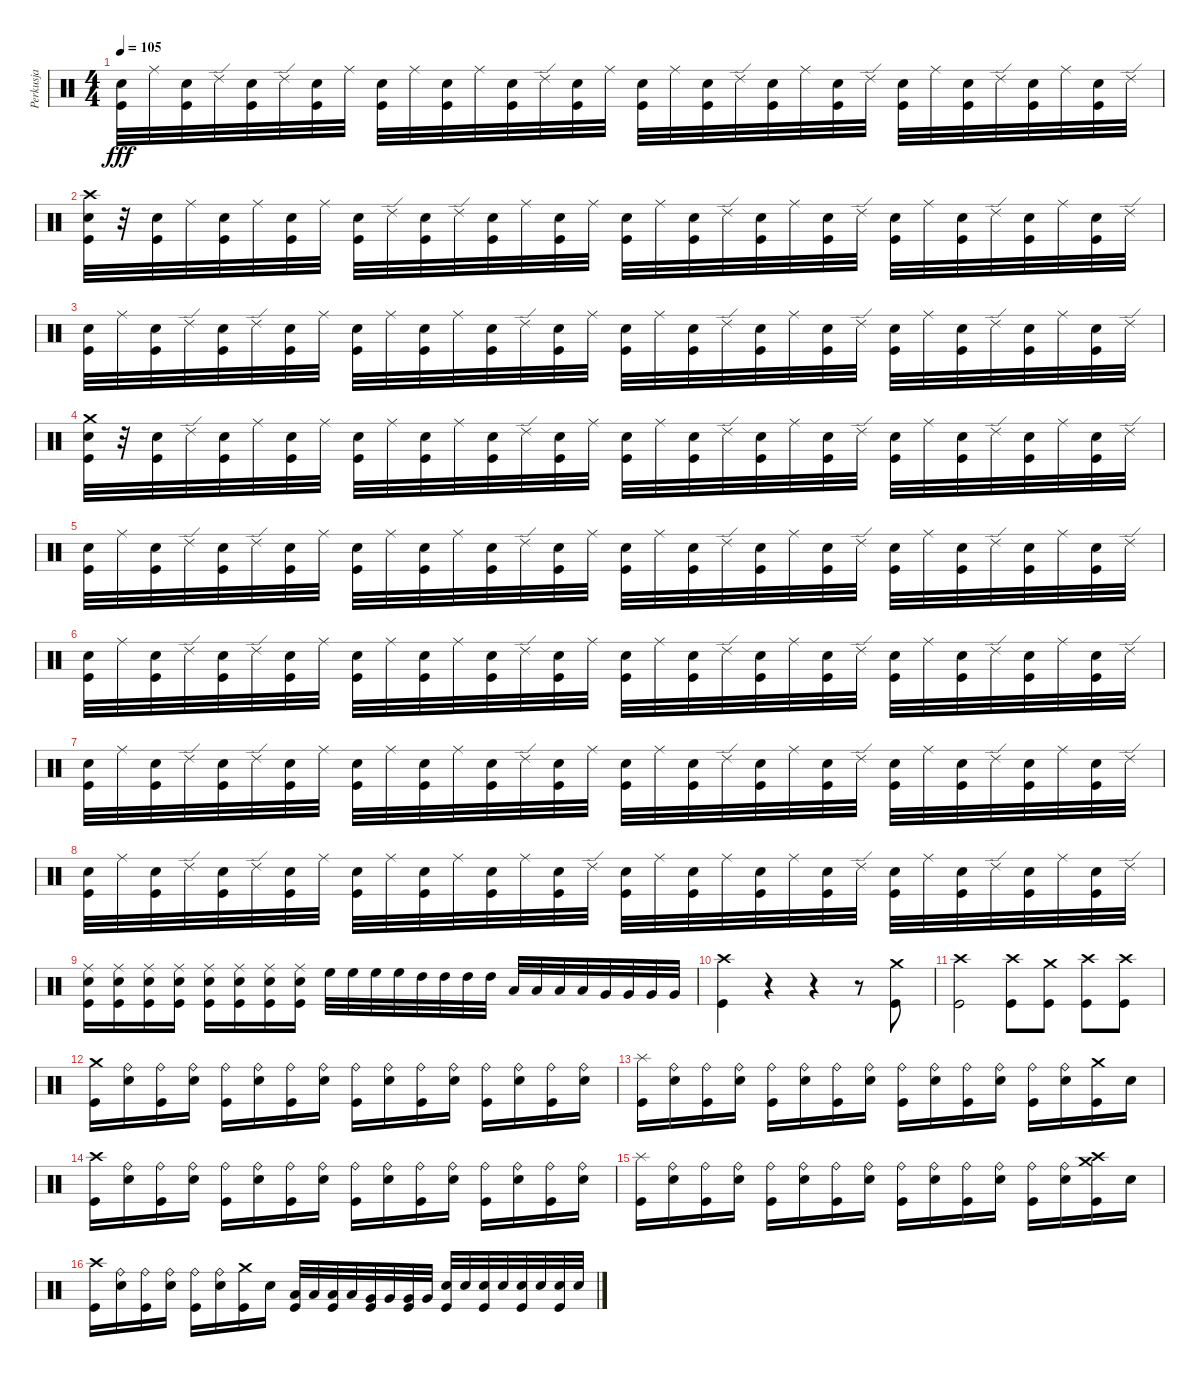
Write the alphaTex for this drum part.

\track ("Perkusja" "Perkusja") {instrument percussion}
\staff {score}
\articulation defaults
\ts (4 4)
\tempo 105
\clef neutral
\ks c
("Snare (hit) 2" "Kick (hit)").32{dy fff} "Ride (middle)".32 ("Snare (hit) 2" "Kick (hit)").32 "Ride (edge) 2".32 ("Snare (hit) 2" "Kick (hit)").32 "Ride (edge) 2".32 ("Snare (hit) 2" "Kick (hit)").32 "Ride (middle)".32 ("Snare (hit) 2" "Kick (hit)").32 "Ride (middle)".32 ("Snare (hit) 2" "Kick (hit)").32 "Ride (middle)".32 ("Snare (hit) 2" "Kick (hit)").32 "Ride (edge) 2".32 ("Snare (hit) 2" "Kick (hit)").32 "Ride (middle)".32 ("Snare (hit) 2" "Kick (hit)").32 "Ride (middle)".32 ("Snare (hit) 2" "Kick (hit)").32 "Ride (edge) 2".32 ("Snare (hit) 2" "Kick (hit)").32 "Ride (middle)".32 ("Snare (hit) 2" "Kick (hit)").32 "Ride (edge) 2".32 ("Snare (hit) 2" "Kick (hit)").32 "Ride (middle)".32 ("Snare (hit) 2" "Kick (hit)").32 "Ride (edge) 2".32 ("Snare (hit) 2" "Kick (hit)").32 "Ride (middle)".32 ("Snare (hit) 2" "Kick (hit)").32 "Ride (edge) 2".32 |
("Crash high (hit)" "Snare (hit) 2" "Kick (hit)").32 r.32 ("Snare (hit) 2" "Kick (hit)").32 "Ride (middle)".32 ("Snare (hit) 2" "Kick (hit)").32 "Ride (middle)".32 ("Snare (hit) 2" "Kick (hit)").32 "Ride (middle)".32 ("Snare (hit) 2" "Kick (hit)").32 "Ride (edge) 2".32 ("Snare (hit) 2" "Kick (hit)").32 "Ride (edge) 2".32 ("Snare (hit) 2" "Kick (hit)").32 "Ride (middle)".32 ("Snare (hit) 2" "Kick (hit)").32 "Ride (middle)".32 ("Snare (hit) 2" "Kick (hit)").32 "Ride (middle)".32 ("Snare (hit) 2" "Kick (hit)").32 "Ride (edge) 2".32 ("Snare (hit) 2" "Kick (hit)").32 "Ride (middle)".32 ("Snare (hit) 2" "Kick (hit)").32 "Ride (edge) 2".32 ("Snare (hit) 2" "Kick (hit)").32 "Ride (middle)".32 ("Snare (hit) 2" "Kick (hit)").32 "Ride (edge) 2".32 ("Snare (hit) 2" "Kick (hit)").32 "Ride (middle)".32 ("Snare (hit) 2" "Kick (hit)").32 "Ride (edge) 2".32 |
("Snare (hit) 2" "Kick (hit)").32 "Ride (middle)".32 ("Snare (hit) 2" "Kick (hit)").32 "Ride (edge) 2".32 ("Snare (hit) 2" "Kick (hit)").32 "Ride (edge) 2".32 ("Snare (hit) 2" "Kick (hit)").32 "Ride (middle)".32 ("Snare (hit) 2" "Kick (hit)").32 "Ride (middle)".32 ("Snare (hit) 2" "Kick (hit)").32 "Ride (middle)".32 ("Snare (hit) 2" "Kick (hit)").32 "Ride (edge) 2".32 ("Snare (hit) 2" "Kick (hit)").32 "Ride (middle)".32 ("Snare (hit) 2" "Kick (hit)").32 "Ride (middle)".32 ("Snare (hit) 2" "Kick (hit)").32 "Ride (edge) 2".32 ("Snare (hit) 2" "Kick (hit)").32 "Ride (middle)".32 ("Snare (hit) 2" "Kick (hit)").32 "Ride (edge) 2".32 ("Snare (hit) 2" "Kick (hit)").32 "Ride (middle)".32 ("Snare (hit) 2" "Kick (hit)").32 "Ride (edge) 2".32 ("Snare (hit) 2" "Kick (hit)").32 "Ride (middle)".32 ("Snare (hit) 2" "Kick (hit)").32 "Ride (edge) 2".32 |
("Crash medium (hit)" "Snare (hit) 2" "Kick (hit)").32 r.32 ("Snare (hit) 2" "Kick (hit)").32 "Ride (edge) 2".32 ("Snare (hit) 2" "Kick (hit)").32 "Ride (middle)".32 ("Snare (hit) 2" "Kick (hit)").32 "Ride (middle)".32 ("Snare (hit) 2" "Kick (hit)").32 "Ride (middle)".32 ("Snare (hit) 2" "Kick (hit)").32 "Ride (middle)".32 ("Snare (hit) 2" "Kick (hit)").32 "Ride (edge) 2".32 ("Snare (hit) 2" "Kick (hit)").32 "Ride (middle)".32 ("Snare (hit) 2" "Kick (hit)").32 "Ride (middle)".32 ("Snare (hit) 2" "Kick (hit)").32 "Ride (edge) 2".32 ("Snare (hit) 2" "Kick (hit)").32 "Ride (middle)".32 ("Snare (hit) 2" "Kick (hit)").32 "Ride (edge) 2".32 ("Snare (hit) 2" "Kick (hit)").32 "Ride (middle)".32 ("Snare (hit) 2" "Kick (hit)").32 "Ride (edge) 2".32 ("Snare (hit) 2" "Kick (hit)").32 "Ride (middle)".32 ("Snare (hit) 2" "Kick (hit)").32 "Ride (edge) 2".32 |
("Snare (hit) 2" "Kick (hit)").32 "Ride (middle)".32 ("Snare (hit) 2" "Kick (hit)").32 "Ride (edge) 2".32 ("Snare (hit) 2" "Kick (hit)").32 "Ride (edge) 2".32 ("Snare (hit) 2" "Kick (hit)").32 "Ride (middle)".32 ("Snare (hit) 2" "Kick (hit)").32 "Ride (middle)".32 ("Snare (hit) 2" "Kick (hit)").32 "Ride (middle)".32 ("Snare (hit) 2" "Kick (hit)").32 "Ride (edge) 2".32 ("Snare (hit) 2" "Kick (hit)").32 "Ride (middle)".32 ("Snare (hit) 2" "Kick (hit)").32 "Ride (middle)".32 ("Snare (hit) 2" "Kick (hit)").32 "Ride (edge) 2".32 ("Snare (hit) 2" "Kick (hit)").32 "Ride (middle)".32 ("Snare (hit) 2" "Kick (hit)").32 "Ride (edge) 2".32 ("Snare (hit) 2" "Kick (hit)").32 "Ride (middle)".32 ("Snare (hit) 2" "Kick (hit)").32 "Ride (edge) 2".32 ("Snare (hit) 2" "Kick (hit)").32 "Ride (middle)".32 ("Snare (hit) 2" "Kick (hit)").32 "Ride (edge) 2".32 |
("Snare (hit) 2" "Kick (hit)").32 "Ride (middle)".32 ("Snare (hit) 2" "Kick (hit)").32 "Ride (edge) 2".32 ("Snare (hit) 2" "Kick (hit)").32 "Ride (edge) 2".32 ("Snare (hit) 2" "Kick (hit)").32 "Ride (middle)".32 ("Snare (hit) 2" "Kick (hit)").32 "Ride (middle)".32 ("Snare (hit) 2" "Kick (hit)").32 "Ride (middle)".32 ("Snare (hit) 2" "Kick (hit)").32 "Ride (edge) 2".32 ("Snare (hit) 2" "Kick (hit)").32 "Ride (middle)".32 ("Snare (hit) 2" "Kick (hit)").32 "Ride (middle)".32 ("Snare (hit) 2" "Kick (hit)").32 "Ride (edge) 2".32 ("Snare (hit) 2" "Kick (hit)").32 "Ride (middle)".32 ("Snare (hit) 2" "Kick (hit)").32 "Ride (edge) 2".32 ("Snare (hit) 2" "Kick (hit)").32 "Ride (middle)".32 ("Snare (hit) 2" "Kick (hit)").32 "Ride (edge) 2".32 ("Snare (hit) 2" "Kick (hit)").32 "Ride (middle)".32 ("Snare (hit) 2" "Kick (hit)").32 "Ride (edge) 2".32 |
("Snare (hit) 2" "Kick (hit)").32 "Ride (middle)".32 ("Snare (hit) 2" "Kick (hit)").32 "Ride (edge) 2".32 ("Snare (hit) 2" "Kick (hit)").32 "Ride (edge) 2".32 ("Snare (hit) 2" "Kick (hit)").32 "Ride (middle)".32 ("Snare (hit) 2" "Kick (hit)").32 "Ride (middle)".32 ("Snare (hit) 2" "Kick (hit)").32 "Ride (middle)".32 ("Snare (hit) 2" "Kick (hit)").32 "Ride (edge) 2".32 ("Snare (hit) 2" "Kick (hit)").32 "Ride (middle)".32 ("Snare (hit) 2" "Kick (hit)").32 "Ride (middle)".32 ("Snare (hit) 2" "Kick (hit)").32 "Ride (edge) 2".32 ("Snare (hit) 2" "Kick (hit)").32 "Ride (middle)".32 ("Snare (hit) 2" "Kick (hit)").32 "Ride (edge) 2".32 ("Snare (hit) 2" "Kick (hit)").32 "Ride (middle)".32 ("Snare (hit) 2" "Kick (hit)").32 "Ride (edge) 2".32 ("Snare (hit) 2" "Kick (hit)").32 "Ride (middle)".32 ("Snare (hit) 2" "Kick (hit)").32 "Ride (edge) 2".32 |
("Snare (hit) 2" "Kick (hit)").32 "Ride (middle)".32 ("Snare (hit) 2" "Kick (hit)").32 "Ride (edge) 2".32 ("Snare (hit) 2" "Kick (hit)").32 "Ride (edge) 2".32 ("Snare (hit) 2" "Kick (hit)").32 "Ride (middle)".32 ("Snare (hit) 2" "Kick (hit)").32 "Ride (middle)".32 ("Snare (hit) 2" "Kick (hit)").32 "Ride (middle)".32 ("Snare (hit) 2" "Kick (hit)").32 "Ride (middle)".32 ("Snare (hit) 2" "Kick (hit)").32 "Ride (edge) 2".32 ("Snare (hit) 2" "Kick (hit)").32 "Ride (middle)".32 ("Snare (hit) 2" "Kick (hit)").32 "Ride (middle)".32 ("Snare (hit) 2" "Kick (hit)").32 "Ride (middle)".32 ("Snare (hit) 2" "Kick (hit)").32 "Ride (edge) 2".32 ("Snare (hit) 2" "Kick (hit)").32 "Ride (middle)".32 ("Snare (hit) 2" "Kick (hit)").32 "Ride (edge) 2".32 ("Snare (hit) 2" "Kick (hit)").32 "Ride (middle)".32 ("Snare (hit) 2" "Kick (hit)").32 "Ride (edge) 2".32 |
("Ride (middle)" "Snare (hit) 2" "Kick (hit)").16 ("Ride (middle)" "Snare (hit) 2" "Kick (hit)").16 ("Ride (middle)" "Snare (hit) 2" "Kick (hit)").16 ("Ride (middle)" "Snare (hit) 2" "Kick (hit)").16 ("Ride (middle)" "Snare (hit) 2" "Kick (hit)").16 ("Ride (middle)" "Snare (hit) 2" "Kick (hit)").16 ("Ride (middle)" "Snare (hit) 2" "Kick (hit)").16 ("Ride (middle)" "Snare (hit) 2" "Kick (hit)").16 "High Floor Tom (hit)".32{balance 0} "High Floor Tom (hit)".32{balance 16} "High Floor Tom (hit)".32 "High Floor Tom (hit)".32 "High Tom (hit)".32 "High Tom (hit)".32 "High Tom (hit)".32 "High Tom (hit)".32 "Low Tom (hit)".32 "Low Tom (hit)".32 "Low Tom (hit)".32 "Low Tom (hit)".32 "Very Low Tom (hit)".32 "Very Low Tom (hit)".32 "Very Low Tom (hit)".32 "Very Low Tom (hit)".32 |
("Crash high (hit)" "Kick (hit)").4{balance 8} r.4{balance 8} r.4 r.8 ("Crash medium (hit)" "Kick (hit)").8 |
("Crash high (hit)" "Kick (hit)").2 ("Crash high (hit)" "Kick (hit)").8 ("Crash medium (hit)" "Kick (hit)").8 ("Crash high (hit)" "Kick (hit)").8 ("Crash high (hit)" "Kick (hit)").8 |
("Crash medium (hit)" "Kick (hit)").16 ("Ride (bell)" "Snare (hit) 2").16 ("Ride (bell)" "Kick (hit)").16 ("Ride (bell)" "Snare (hit) 2").16 ("Ride (bell)" "Kick (hit)").16 ("Ride (bell)" "Snare (hit) 2").16 ("Ride (bell)" "Kick (hit)").16 ("Ride (bell)" "Snare (hit) 2").16 ("Ride (bell)" "Kick (hit)").16 ("Ride (bell)" "Snare (hit) 2").16 ("Ride (bell)" "Kick (hit)").16 ("Ride (bell)" "Snare (hit) 2").16 ("Ride (bell)" "Kick (hit)").16 ("Ride (bell)" "Snare (hit) 2").16 ("Ride (bell)" "Kick (hit)").16 ("Ride (bell)" "Snare (hit) 2").16 |
("Splash (hit)" "Kick (hit)").16 ("Ride (bell)" "Snare (hit) 2").16 ("Ride (bell)" "Kick (hit)").16 ("Ride (bell)" "Snare (hit) 2").16 ("Ride (bell)" "Kick (hit)").16 ("Ride (bell)" "Snare (hit) 2").16 ("Ride (bell)" "Kick (hit)").16 ("Ride (bell)" "Snare (hit) 2").16 ("Ride (bell)" "Kick (hit)").16 ("Ride (bell)" "Snare (hit) 2").16 ("Ride (bell)" "Kick (hit)").16 ("Ride (bell)" "Snare (hit) 2").16 ("Ride (bell)" "Kick (hit)").16 ("Ride (bell)" "Snare (hit) 2").16 ("Crash medium (hit)" "Kick (hit)").16 "Snare (hit) 2".16 |
("Crash high (hit)" "Kick (hit)").16 ("Ride (bell)" "Snare (hit) 2").16 ("Ride (bell)" "Kick (hit)").16 ("Ride (bell)" "Snare (hit) 2").16 ("Ride (bell)" "Kick (hit)").16 ("Ride (bell)" "Snare (hit) 2").16 ("Ride (bell)" "Kick (hit)").16 ("Ride (bell)" "Snare (hit) 2").16 ("Ride (bell)" "Kick (hit)").16 ("Ride (bell)" "Snare (hit) 2").16 ("Ride (bell)" "Kick (hit)").16 ("Ride (bell)" "Snare (hit) 2").16 ("Ride (bell)" "Kick (hit)").16 ("Ride (bell)" "Snare (hit) 2").16 ("Ride (bell)" "Kick (hit)").16 ("Ride (bell)" "Snare (hit) 2").16 |
("Splash (hit)" "Kick (hit)").16 ("Ride (bell)" "Snare (hit) 2").16 ("Ride (bell)" "Kick (hit)").16 ("Ride (bell)" "Snare (hit) 2").16 ("Ride (bell)" "Kick (hit)").16 ("Ride (bell)" "Snare (hit) 2").16 ("Ride (bell)" "Kick (hit)").16 ("Ride (bell)" "Snare (hit) 2").16 ("Ride (bell)" "Kick (hit)").16 ("Ride (bell)" "Snare (hit) 2").16 ("Ride (bell)" "Kick (hit)").16 ("Ride (bell)" "Snare (hit) 2").16 ("Ride (bell)" "Kick (hit)").16 ("Ride (bell)" "Snare (hit) 2").16 ("Crash medium (hit)" "Crash high (hit)" "Kick (hit)").16 "Snare (hit) 2".16 |
("Crash high (hit)" "Kick (hit)").16 ("Ride (bell)" "Snare (hit) 2").16 ("Ride (bell)" "Kick (hit)").16 ("Ride (bell)" "Snare (hit) 2").16 ("Ride (bell)" "Kick (hit)").16 ("Ride (bell)" "Snare (hit) 2").16 ("Crash medium (hit)" "Kick (hit)").16 "Snare (hit) 2".16 ("Low Tom (hit)" "Kick (hit)").32 "Low Tom (hit)".32 ("Low Tom (hit)" "Kick (hit)").32 "Low Tom (hit)".32 ("Very Low Tom (hit)" "Kick (hit)").32{balance 16} "Very Low Tom (hit)".32 ("Very Low Tom (hit)" "Kick (hit)").32 "Very Low Tom (hit)".32 ("Snare (hit) 2" "Kick (hit)").32{balance 8} "Snare (hit) 2".32 ("Snare (hit) 2" "Kick (hit)").32 "Snare (hit) 2".32 ("Snare (hit) 2" "Kick (hit)").32 "Snare (hit) 2".32 ("Snare (hit) 2" "Kick (hit)").32 "Snare (hit) 2".32
